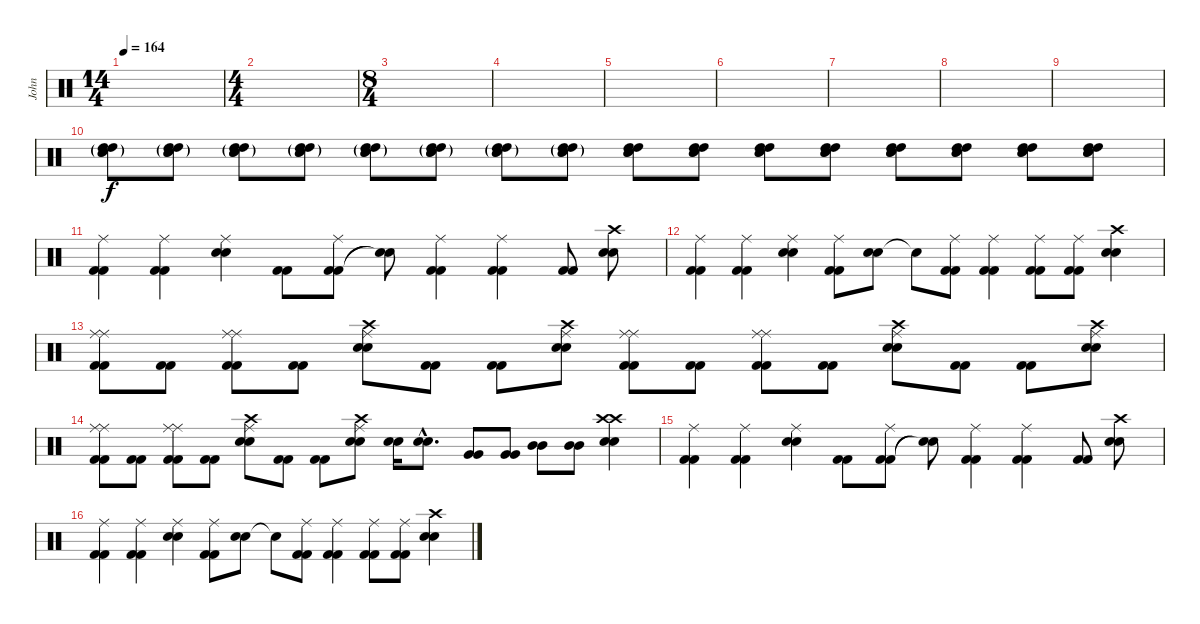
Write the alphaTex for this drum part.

\track ("John" "John") {instrument percussion}
\staff {score}
\articulation defaults
\ts (14 4)
\tempo 164
\clef neutral
\ks c
|
\ts (4 4)
|
\ts (8 4)
|
|
|
|
|
|
|
("Snare (hit) 2"{g} "Snare (hit) 2"{g} "High Tom (hit)"{g} "High Tom (hit)"{g}).8 ("Snare (hit) 2"{g} "Snare (hit) 2"{g} "High Tom (hit)"{g} "High Tom (hit)"{g}).8 ("Snare (hit) 2"{g} "Snare (hit) 2"{g} "High Tom (hit)"{g} "High Tom (hit)"{g}).8 ("Snare (hit) 2"{g} "Snare (hit) 2"{g} "High Tom (hit)"{g} "High Tom (hit)"{g}).8 ("Snare (hit) 2"{g} "Snare (hit) 2"{g} "High Tom (hit)"{g} "High Tom (hit)"{g}).8 ("Snare (hit) 2"{g} "Snare (hit) 2"{g} "High Tom (hit)"{g} "High Tom (hit)"{g}).8 ("Snare (hit) 2"{g} "Snare (hit) 2"{g} "High Tom (hit)"{g} "High Tom (hit)"{g}).8 ("Snare (hit) 2"{g} "Snare (hit) 2"{g} "High Tom (hit)"{g} "High Tom (hit)"{g}).8 ("Snare (hit) 2" "Snare (hit) 2" "High Tom (hit)" "High Tom (hit)").8{dy f} ("Snare (hit) 2" "Snare (hit) 2" "High Tom (hit)" "High Tom (hit)").8 ("Snare (hit) 2" "Snare (hit) 2" "High Tom (hit)" "High Tom (hit)").8 ("Snare (hit) 2" "Snare (hit) 2" "High Tom (hit)" "High Tom (hit)").8 ("Snare (hit) 2" "Snare (hit) 2" "High Tom (hit)" "High Tom (hit)").8 ("Snare (hit) 2" "Snare (hit) 2" "High Tom (hit)" "High Tom (hit)").8 ("Snare (hit) 2" "Snare (hit) 2" "High Tom (hit)" "High Tom (hit)").8 ("Snare (hit) 2" "Snare (hit) 2" "High Tom (hit)" "High Tom (hit)").8 |
("Kick (hit) 2" "Kick (hit) 2" "Ride (middle)").4 ("Kick (hit) 2" "Kick (hit) 2" "Ride (middle)").4 ("Snare (hit) 2" "Snare (hit) 2" "Ride (middle)").4 ("Kick (hit) 2" "Kick (hit) 2").8 ("Kick (hit) 2" "Kick (hit) 2" "Ride (middle)").8 ("Snare (hit)"{t} "Snare (hit)"{t}).8 ("Kick (hit) 2" "Kick (hit) 2" "Ride (middle)").4 ("Kick (hit) 2" "Kick (hit) 2" "Ride (middle)").4 ("Kick (hit) 2" "Kick (hit) 2").8 ("Snare (hit) 2" "Snare (hit) 2" "Crash high (hit)").8 |
("Kick (hit) 2" "Kick (hit) 2" "Ride (middle)").4 ("Kick (hit) 2" "Kick (hit) 2" "Ride (middle)").4 ("Snare (hit) 2" "Snare (hit) 2" "Ride (middle)").4 ("Kick (hit) 2" "Kick (hit) 2" "Ride (middle)").8 ("Snare (hit) 2" "Snare (hit) 2").8 "Snare (hit)"{t}.8 ("Kick (hit) 2" "Kick (hit) 2" "Ride (middle)").8 ("Kick (hit) 2" "Kick (hit) 2" "Ride (middle)").4 ("Kick (hit) 2" "Kick (hit) 2" "Ride (middle)").8 ("Kick (hit) 2" "Kick (hit) 2" "Ride (middle)").8 ("Snare (hit) 2" "Snare (hit) 2" "Crash high (hit)").4 |
("Kick (hit) 2" "Kick (hit) 2" "Ride (middle)" "Ride (middle)").8 ("Kick (hit) 2" "Kick (hit) 2").8 ("Kick (hit) 2" "Kick (hit) 2" "Ride (middle)" "Ride (middle)").8 ("Kick (hit) 2" "Kick (hit) 2").8 ("Snare (hit) 2" "Snare (hit) 2" "Crash high (hit)" "Ride (middle)").8 ("Kick (hit) 2" "Kick (hit) 2").8 ("Kick (hit) 2" "Kick (hit) 2").8 ("Snare (hit) 2" "Snare (hit) 2" "Crash high (hit)" "Ride (middle)").8 ("Kick (hit) 2" "Kick (hit) 2" "Ride (middle)" "Ride (middle)").8 ("Kick (hit) 2" "Kick (hit) 2").8 ("Kick (hit) 2" "Kick (hit) 2" "Ride (middle)" "Ride (middle)").8 ("Kick (hit) 2" "Kick (hit) 2").8 ("Snare (hit) 2" "Snare (hit) 2" "Crash high (hit)" "Ride (middle)").8 ("Kick (hit) 2" "Kick (hit) 2").8 ("Kick (hit) 2" "Kick (hit) 2").8 ("Snare (hit) 2" "Snare (hit) 2" "Crash high (hit)" "Ride (middle)").8 |
("Kick (hit) 2" "Kick (hit) 2" "Ride (middle)" "Ride (middle)").8 ("Kick (hit) 2" "Kick (hit) 2").8 ("Kick (hit) 2" "Kick (hit) 2" "Ride (middle)" "Ride (middle)").8 ("Kick (hit) 2" "Kick (hit) 2").8 ("Snare (hit) 2" "Snare (hit) 2" "Crash high (hit)" "Ride (middle)").8 ("Kick (hit) 2" "Kick (hit) 2").8 ("Kick (hit) 2" "Kick (hit) 2").8 ("Snare (hit) 2" "Snare (hit) 2" "Crash high (hit)" "Ride (middle)").8 ("Snare (hit) 2" "Snare (hit) 2").16 ("Snare (hit) 2"{hac} "Snare (hit) 2"{hac}).8{d} ("Very Low Tom (hit)" "Very Low Tom (hit)").8 ("Very Low Tom (hit)" "Very Low Tom (hit)").8 ("Mid Tom (hit)" "Mid Tom (hit)").8 ("Mid Tom (hit)" "Mid Tom (hit)").8 ("Snare (hit) 2" "Snare (hit) 2" "Crash high (hit)" "Crash high (hit)").4 |
("Kick (hit) 2" "Kick (hit) 2" "Ride (middle)").4 ("Kick (hit) 2" "Kick (hit) 2" "Ride (middle)").4 ("Snare (hit) 2" "Snare (hit) 2" "Ride (middle)").4 ("Kick (hit) 2" "Kick (hit) 2").8 ("Kick (hit) 2" "Kick (hit) 2" "Ride (middle)").8 ("Snare (hit)"{t} "Snare (hit)"{t}).8 ("Kick (hit) 2" "Kick (hit) 2" "Ride (middle)").4 ("Kick (hit) 2" "Kick (hit) 2" "Ride (middle)").4 ("Kick (hit) 2" "Kick (hit) 2").8 ("Snare (hit) 2" "Snare (hit) 2" "Crash high (hit)").8 |
("Kick (hit) 2" "Kick (hit) 2" "Ride (middle)").4 ("Kick (hit) 2" "Kick (hit) 2" "Ride (middle)").4 ("Snare (hit) 2" "Snare (hit) 2" "Ride (middle)").4 ("Kick (hit) 2" "Kick (hit) 2" "Ride (middle)").8 ("Snare (hit) 2" "Snare (hit) 2").8 "Snare (hit)"{t}.8 ("Kick (hit) 2" "Kick (hit) 2" "Ride (middle)").8 ("Kick (hit) 2" "Kick (hit) 2" "Ride (middle)").4 ("Kick (hit) 2" "Kick (hit) 2" "Ride (middle)").8 ("Kick (hit) 2" "Kick (hit) 2" "Ride (middle)").8 ("Snare (hit) 2" "Snare (hit) 2" "Crash high (hit)").4
